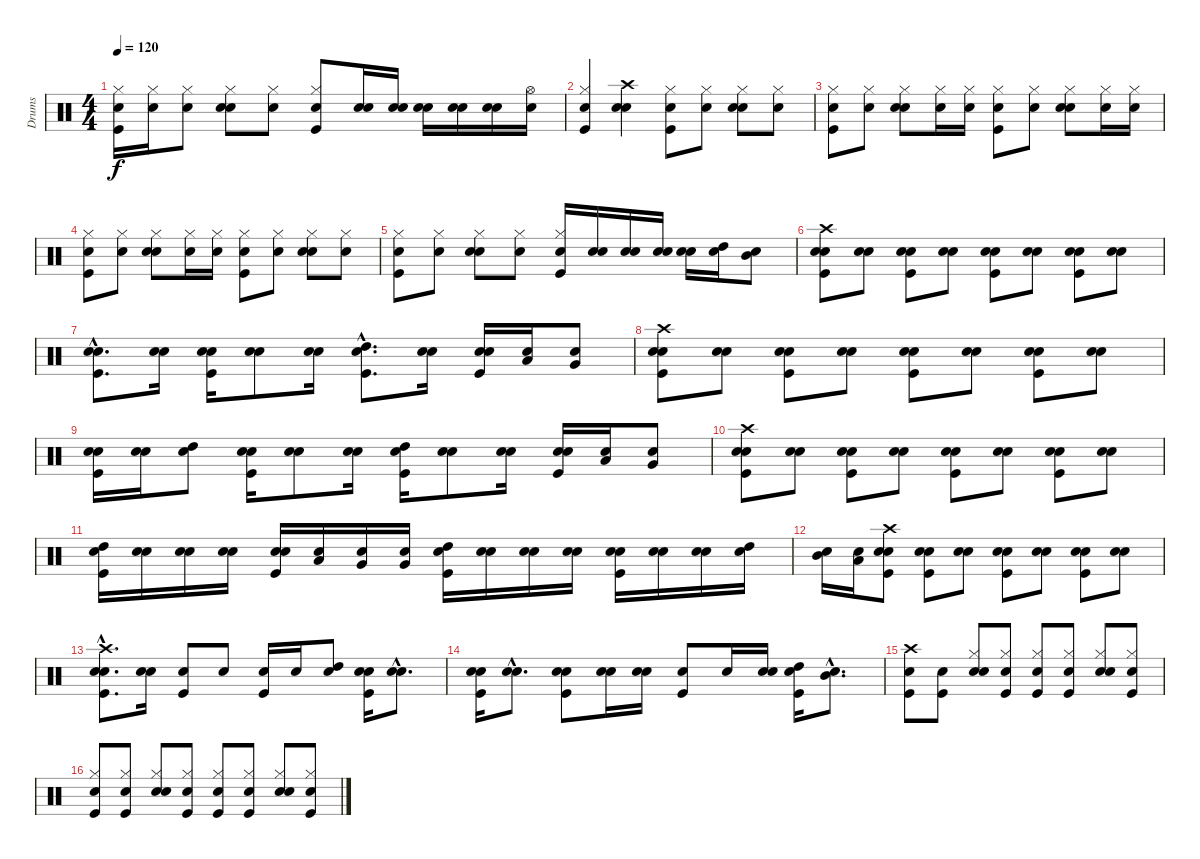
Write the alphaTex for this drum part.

\track ("Drums" "Drums") {instrument percussion}
\staff {score}
\articulation defaults
\ts (4 4)
\tempo 120
\clef neutral
\ks c
("Snare (hit)" "Hi-Hat (closed)" "Kick (hit)").16{dy f} ("Snare (hit)" "Hi-Hat (closed)").16 ("Snare (hit)" "Hi-Hat (closed)").8 ("Snare (hit)" "Electric Snare (hit)" "Hi-Hat (closed)").8 ("Snare (hit)" "Hi-Hat (closed)").8 ("Snare (hit)" "Hi-Hat (closed)" "Kick (hit)").8 ("Snare (hit)" "Electric Snare (hit)").16 ("Snare (hit)" "Electric Snare (hit)").16 ("Snare (hit)" "Electric Snare (hit)").16 ("Snare (hit)" "Electric Snare (hit)").16 ("Snare (hit)" "Electric Snare (hit)").16 ("Snare (hit)" "Hi-Hat (open)").16 |
("Snare (hit)" "Hi-Hat (closed)" "Kick (hit)").4 ("Snare (hit)" "Electric Snare (hit)" "Crash high (hit)").4 ("Snare (hit)" "Hi-Hat (closed)" "Kick (hit)").8 ("Snare (hit)" "Hi-Hat (closed)").8 ("Snare (hit)" "Electric Snare (hit)" "Hi-Hat (closed)").8 ("Snare (hit)" "Hi-Hat (closed)").8 |
("Snare (hit)" "Hi-Hat (closed)" "Kick (hit)").8 ("Snare (hit)" "Hi-Hat (closed)").8 ("Snare (hit)" "Electric Snare (hit)" "Hi-Hat (closed)").8 ("Snare (hit)" "Hi-Hat (closed)").16 ("Snare (hit)" "Hi-Hat (closed)").16 ("Snare (hit)" "Hi-Hat (closed)" "Kick (hit)").8 ("Snare (hit)" "Hi-Hat (closed)").8 ("Snare (hit)" "Electric Snare (hit)" "Hi-Hat (closed)").8 ("Snare (hit)" "Hi-Hat (closed)").16 ("Snare (hit)" "Hi-Hat (closed)").16 |
("Snare (hit)" "Hi-Hat (closed)" "Kick (hit)").8 ("Snare (hit)" "Hi-Hat (closed)").8 ("Snare (hit)" "Electric Snare (hit)" "Hi-Hat (closed)").8 ("Snare (hit)" "Hi-Hat (closed)").16 ("Snare (hit)" "Hi-Hat (closed)").16 ("Snare (hit)" "Hi-Hat (closed)" "Kick (hit)").8 ("Snare (hit)" "Hi-Hat (closed)").8 ("Snare (hit)" "Electric Snare (hit)" "Hi-Hat (closed)").8 ("Snare (hit)" "Hi-Hat (closed)").8 |
("Snare (hit)" "Hi-Hat (closed)" "Kick (hit)").8 ("Snare (hit)" "Hi-Hat (closed)").8 ("Snare (hit)" "Electric Snare (hit)" "Hi-Hat (closed)").8 ("Snare (hit)" "Hi-Hat (closed)").8 ("Snare (hit)" "Hi-Hat (closed)" "Kick (hit)").16 ("Snare (hit)" "Electric Snare (hit)").16 ("Snare (hit)" "Electric Snare (hit)").16 ("Snare (hit)" "Electric Snare (hit)").16 ("Snare (hit)" "Electric Snare (hit)").16 ("Snare (hit)" "High Tom (hit)").16 ("Snare (hit)" "Mid Tom (hit)").8 |
("Snare (hit)" "Electric Snare (hit)" "Crash high (hit)" "Kick (hit)").8 ("Snare (hit)" "Electric Snare (hit)").8 ("Snare (hit)" "Electric Snare (hit)" "Kick (hit)").8 ("Snare (hit)" "Electric Snare (hit)").8 ("Snare (hit)" "Electric Snare (hit)" "Kick (hit)").8 ("Snare (hit)" "Electric Snare (hit)").8 ("Snare (hit)" "Electric Snare (hit)" "Kick (hit)").8 ("Snare (hit)" "Electric Snare (hit)").8 |
("Snare (hit)"{hac} "Electric Snare (hit)"{hac} "Kick (hit)"{hac}).8{d} ("Snare (hit)" "Electric Snare (hit)").16 ("Snare (hit)" "Electric Snare (hit)" "Kick (hit)").16 ("Snare (hit)" "Electric Snare (hit)").8 ("Snare (hit)" "Electric Snare (hit)").16 ("Snare (hit)"{hac} "High Tom (hit)"{hac} "Kick (hit)"{hac}).8{d} ("Snare (hit)" "Electric Snare (hit)").16 ("Snare (hit)" "Electric Snare (hit)" "Kick (hit)").16 ("Snare (hit)" "Low Tom (hit)").16 ("Snare (hit)" "Very Low Tom (hit)").8 |
("Snare (hit)" "Electric Snare (hit)" "Crash high (hit)" "Kick (hit)").8 ("Snare (hit)" "Electric Snare (hit)").8 ("Snare (hit)" "Electric Snare (hit)" "Kick (hit)").8 ("Snare (hit)" "Electric Snare (hit)").8 ("Snare (hit)" "Electric Snare (hit)" "Kick (hit)").8 ("Snare (hit)" "Electric Snare (hit)").8 ("Snare (hit)" "Electric Snare (hit)" "Kick (hit)").8 ("Snare (hit)" "Electric Snare (hit)").8 |
("Snare (hit)" "Electric Snare (hit)" "Kick (hit)").16 ("Snare (hit)" "Electric Snare (hit)").16 ("Snare (hit)" "High Tom (hit)").8 ("Snare (hit)" "Electric Snare (hit)" "Kick (hit)").16 ("Snare (hit)" "Electric Snare (hit)").8 ("Snare (hit)" "Electric Snare (hit)").16 ("Snare (hit)" "High Tom (hit)" "Kick (hit)").16 ("Snare (hit)" "Electric Snare (hit)").8 ("Snare (hit)" "Electric Snare (hit)").16 ("Snare (hit)" "Electric Snare (hit)" "Kick (hit)").16 ("Snare (hit)" "Low Tom (hit)").16 ("Snare (hit)" "Very Low Tom (hit)").8 |
("Snare (hit)" "Electric Snare (hit)" "Crash high (hit)" "Kick (hit)").8 ("Snare (hit)" "Electric Snare (hit)").8 ("Snare (hit)" "Electric Snare (hit)" "Kick (hit)").8 ("Snare (hit)" "Electric Snare (hit)").8 ("Snare (hit)" "Electric Snare (hit)" "Kick (hit)").8 ("Snare (hit)" "Electric Snare (hit)").8 ("Snare (hit)" "Electric Snare (hit)" "Kick (hit)").8 ("Snare (hit)" "Electric Snare (hit)").8 |
("Snare (hit)" "Kick (hit)" "High Tom (hit)").16 ("Snare (hit)" "Electric Snare (hit)").16 ("Snare (hit)" "Electric Snare (hit)").16 ("Snare (hit)" "Electric Snare (hit)").16 ("Snare (hit)" "Kick (hit)" "Electric Snare (hit)").16 ("Snare (hit)" "Low Tom (hit)").16 ("Snare (hit)" "Very Low Tom (hit)").16 ("Snare (hit)" "Very Low Tom (hit)").16 ("Snare (hit)" "Kick (hit)" "High Tom (hit)").16 ("Snare (hit)" "Electric Snare (hit)").16 ("Snare (hit)" "Electric Snare (hit)").16 ("Snare (hit)" "Electric Snare (hit)").16 ("Snare (hit)" "Kick (hit)" "Electric Snare (hit)").16 ("Snare (hit)" "Electric Snare (hit)").16 ("Snare (hit)" "Electric Snare (hit)").16 ("Snare (hit)" "High Tom (hit)").16 |
("Snare (hit)" "Mid Tom (hit)").16 ("Snare (hit)" "Low Tom (hit)").16 ("Snare (hit)" "Kick (hit)" "Electric Snare (hit)" "Crash high (hit)").8 ("Snare (hit)" "Kick (hit)" "Electric Snare (hit)").8 ("Snare (hit)" "Electric Snare (hit)").8 ("Snare (hit)" "Kick (hit)" "Electric Snare (hit)").8 ("Snare (hit)" "Electric Snare (hit)").8 ("Snare (hit)" "Kick (hit)" "Electric Snare (hit)").8 ("Snare (hit)" "Electric Snare (hit)").8 |
("Snare (hit)"{hac} "Kick (hit)"{hac} "Electric Snare (hit)"{hac} "Crash high (hit)"{hac}).8{d} ("Snare (hit)" "Electric Snare (hit)").16 ("Snare (hit)" "Kick (hit)").8 "Electric Snare (hit)".8 ("Snare (hit)" "Kick (hit)").16 "Electric Snare (hit)".16 ("Snare (hit)" "High Tom (hit)").8 ("Snare (hit)" "Kick (hit)" "Electric Snare (hit)").16 ("Snare (hit)"{hac} "Electric Snare (hit)"{hac}).8{d} |
("Snare (hit)" "Kick (hit)" "Electric Snare (hit)").16 ("Snare (hit)"{hac} "Electric Snare (hit)"{hac}).8{d} ("Snare (hit)" "Kick (hit)" "Electric Snare (hit)").8 ("Snare (hit)" "Electric Snare (hit)").16 ("Snare (hit)" "Electric Snare (hit)").16 ("Snare (hit)" "Kick (hit)").8 "Electric Snare (hit)".16 ("Snare (hit)" "Electric Snare (hit)").16 ("Snare (hit)" "Kick (hit)" "High Tom (hit)").16 ("Snare (hit)"{hac} "Mid Tom (hit)"{hac}).8{d} |
("Snare (hit)" "Kick (hit)" "Crash high (hit)").8 ("Snare (hit)" "Kick (hit)").8 ("Snare (hit)" "Electric Snare (hit)" "Hi-Hat (closed)").8 ("Snare (hit)" "Kick (hit)" "Hi-Hat (closed)").8 ("Snare (hit)" "Kick (hit)" "Hi-Hat (closed)").8 ("Snare (hit)" "Kick (hit)" "Hi-Hat (closed)").8 ("Snare (hit)" "Electric Snare (hit)" "Hi-Hat (closed)").8 ("Snare (hit)" "Kick (hit)" "Hi-Hat (closed)").8 |
("Snare (hit)" "Kick (hit)" "Hi-Hat (closed)").8 ("Snare (hit)" "Kick (hit)" "Hi-Hat (closed)").8 ("Snare (hit)" "Electric Snare (hit)" "Hi-Hat (closed)").8 ("Snare (hit)" "Kick (hit)" "Hi-Hat (closed)").8 ("Snare (hit)" "Kick (hit)" "Hi-Hat (closed)").8 ("Snare (hit)" "Kick (hit)" "Hi-Hat (closed)").8 ("Snare (hit)" "Electric Snare (hit)" "Hi-Hat (closed)").8 ("Snare (hit)" "Kick (hit)" "Hi-Hat (closed)").8
